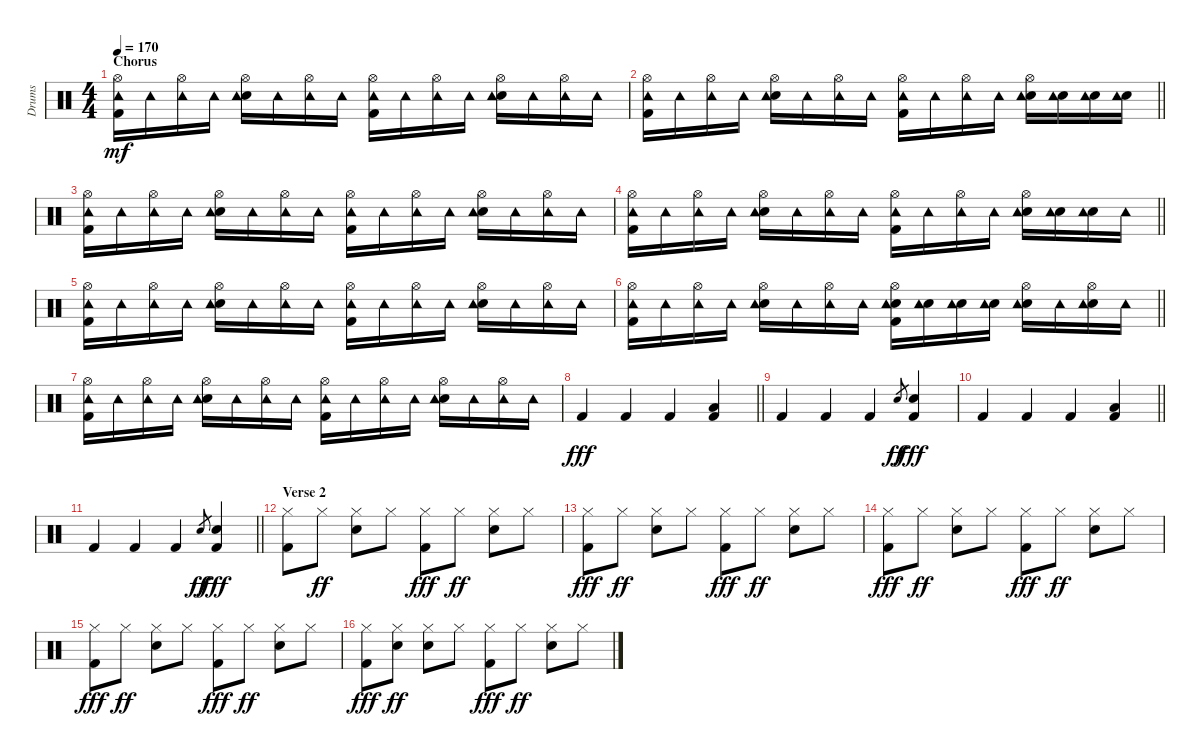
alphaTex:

\track ("Drums" "Drums") {instrument percussion}
\staff {score}
\articulation defaults
\ts (4 4)
\section ("" "Chorus")
\tempo 170
\clef neutral
\ks c
("Hi-Hat (open)" "Kick (hit) 2" "Tambourine (hit)").16{dy mf} "Tambourine (hit)".16 ("Hi-Hat (open)" "Tambourine (hit)").16 "Tambourine (hit)".16 ("Hi-Hat (open)" "Snare (hit) 2" "Tambourine (hit)").16 "Tambourine (hit)".16 ("Hi-Hat (open)" "Tambourine (hit)").16 "Tambourine (hit)".16 ("Hi-Hat (open)" "Kick (hit) 2" "Tambourine (hit)").16 "Tambourine (hit)".16 ("Hi-Hat (open)" "Tambourine (hit)").16 "Tambourine (hit)".16 ("Hi-Hat (open)" "Snare (hit) 2" "Tambourine (hit)").16 "Tambourine (hit)".16 ("Hi-Hat (open)" "Tambourine (hit)").16 "Tambourine (hit)".16 |
\barLineRight lightlight
("Hi-Hat (open)" "Kick (hit) 2" "Tambourine (hit)").16 "Tambourine (hit)".16 ("Hi-Hat (open)" "Tambourine (hit)").16 "Tambourine (hit)".16 ("Hi-Hat (open)" "Snare (hit) 2" "Tambourine (hit)").16 "Tambourine (hit)".16 ("Hi-Hat (open)" "Tambourine (hit)").16 "Tambourine (hit)".16 ("Hi-Hat (open)" "Kick (hit) 2" "Tambourine (hit)").16 "Tambourine (hit)".16 ("Hi-Hat (open)" "Tambourine (hit)").16 "Tambourine (hit)".16 ("Hi-Hat (open)" "Snare (hit) 2" "Tambourine (hit)").16 ("Snare (hit) 2" "Tambourine (hit)").16 ("Snare (hit) 2" "Tambourine (hit)").16 ("Snare (hit) 2" "Tambourine (hit)").16 |
("Hi-Hat (open)" "Kick (hit) 2" "Tambourine (hit)").16 "Tambourine (hit)".16 ("Hi-Hat (open)" "Tambourine (hit)").16 "Tambourine (hit)".16 ("Hi-Hat (open)" "Snare (hit) 2" "Tambourine (hit)").16 "Tambourine (hit)".16 ("Hi-Hat (open)" "Tambourine (hit)").16 "Tambourine (hit)".16 ("Hi-Hat (open)" "Kick (hit) 2" "Tambourine (hit)").16 "Tambourine (hit)".16 ("Hi-Hat (open)" "Tambourine (hit)").16 "Tambourine (hit)".16 ("Hi-Hat (open)" "Snare (hit) 2" "Tambourine (hit)").16 "Tambourine (hit)".16 ("Hi-Hat (open)" "Tambourine (hit)").16 "Tambourine (hit)".16 |
\barLineRight lightlight
("Hi-Hat (open)" "Kick (hit) 2" "Tambourine (hit)").16 "Tambourine (hit)".16 ("Hi-Hat (open)" "Tambourine (hit)").16 "Tambourine (hit)".16 ("Hi-Hat (open)" "Snare (hit) 2" "Tambourine (hit)").16 "Tambourine (hit)".16 ("Hi-Hat (open)" "Tambourine (hit)").16 "Tambourine (hit)".16 ("Hi-Hat (open)" "Kick (hit) 2" "Tambourine (hit)").16 "Tambourine (hit)".16 ("Hi-Hat (open)" "Tambourine (hit)").16 "Tambourine (hit)".16 ("Hi-Hat (open)" "Snare (hit) 2" "Tambourine (hit)").16 ("Snare (hit) 2" "Tambourine (hit)").16 ("Snare (hit) 2" "Tambourine (hit)").16 "Tambourine (hit)".16 |
("Hi-Hat (open)" "Kick (hit) 2" "Tambourine (hit)").16 "Tambourine (hit)".16 ("Hi-Hat (open)" "Tambourine (hit)").16 "Tambourine (hit)".16 ("Hi-Hat (open)" "Snare (hit) 2" "Tambourine (hit)").16 "Tambourine (hit)".16 ("Hi-Hat (open)" "Tambourine (hit)").16 "Tambourine (hit)".16 ("Hi-Hat (open)" "Kick (hit) 2" "Tambourine (hit)").16 "Tambourine (hit)".16 ("Hi-Hat (open)" "Tambourine (hit)").16 "Tambourine (hit)".16 ("Hi-Hat (open)" "Snare (hit) 2" "Tambourine (hit)").16 "Tambourine (hit)".16 ("Hi-Hat (open)" "Tambourine (hit)").16 "Tambourine (hit)".16 |
\barLineRight lightlight
("Hi-Hat (open)" "Kick (hit) 2" "Tambourine (hit)").16 "Tambourine (hit)".16 ("Hi-Hat (open)" "Tambourine (hit)").16 "Tambourine (hit)".16 ("Hi-Hat (open)" "Snare (hit) 2" "Tambourine (hit)").16 "Tambourine (hit)".16 ("Hi-Hat (open)" "Tambourine (hit)").16 "Tambourine (hit)".16 ("Hi-Hat (open)" "Snare (hit) 2" "Kick (hit) 2" "Tambourine (hit)").16 ("Snare (hit) 2" "Tambourine (hit)").16 ("Snare (hit) 2" "Tambourine (hit)").16 ("Snare (hit) 2" "Tambourine (hit)").16 ("Hi-Hat (open)" "Snare (hit) 2" "Tambourine (hit)").16 "Tambourine (hit)".16 ("Hi-Hat (open)" "Snare (hit) 2" "Tambourine (hit)").16 "Tambourine (hit)".16 |
("Hi-Hat (open)" "Kick (hit) 2" "Tambourine (hit)").16 "Tambourine (hit)".16 ("Hi-Hat (open)" "Tambourine (hit)").16 "Tambourine (hit)".16 ("Hi-Hat (open)" "Snare (hit) 2" "Tambourine (hit)").16 "Tambourine (hit)".16 ("Hi-Hat (open)" "Tambourine (hit)").16 "Tambourine (hit)".16 ("Hi-Hat (open)" "Kick (hit) 2" "Tambourine (hit)").16 "Tambourine (hit)".16 ("Hi-Hat (open)" "Tambourine (hit)").16 "Tambourine (hit)".16 ("Hi-Hat (open)" "Snare (hit) 2" "Tambourine (hit)").16 "Tambourine (hit)".16 ("Hi-Hat (open)" "Tambourine (hit)").16 "Tambourine (hit)".16 |
\barLineRight lightlight "Kick (hit) 2".4{dy fff} "Kick (hit) 2".4 "Kick (hit) 2".4
("Low Tom (hit)" "Kick (hit) 2").4 |
"Kick (hit) 2".4 "Kick (hit) 2".4 "Kick (hit) 2".4 "Snare (hit) 2".8{gr dy ff} ("Snare (hit) 2" "Kick (hit) 2").4{dy fff} |
\barLineRight lightlight "Kick (hit) 2".4 "Kick (hit) 2".4 "Kick (hit) 2".4
("Low Tom (hit)" "Kick (hit) 2").4 |
\barLineRight lightlight "Kick (hit) 2".4 "Kick (hit) 2".4 "Kick (hit) 2".4 "Snare (hit) 2".8{gr dy ff}
("Snare (hit) 2" "Kick (hit) 2").4{dy fff} |
\section ("" "Verse 2")
("Hi-Hat (closed)" "Kick (hit) 2").8 "Hi-Hat (closed)".8{dy ff} ("Hi-Hat (closed)" "Snare (hit) 2").8 "Hi-Hat (closed)".8 ("Hi-Hat (closed)" "Kick (hit) 2").8{dy fff} "Hi-Hat (closed)".8{dy ff} ("Hi-Hat (closed)" "Snare (hit) 2").8 "Hi-Hat (closed)".8 |
("Hi-Hat (closed)" "Kick (hit) 2").8{dy fff} "Hi-Hat (closed)".8{dy ff} ("Hi-Hat (closed)" "Snare (hit) 2").8 "Hi-Hat (closed)".8 ("Hi-Hat (closed)" "Kick (hit) 2").8{dy fff} "Hi-Hat (closed)".8{dy ff} ("Hi-Hat (closed)" "Snare (hit) 2").8 "Hi-Hat (closed)".8 |
("Hi-Hat (closed)" "Kick (hit) 2").8{dy fff} "Hi-Hat (closed)".8{dy ff} ("Hi-Hat (closed)" "Snare (hit) 2").8 "Hi-Hat (closed)".8 ("Hi-Hat (closed)" "Kick (hit) 2").8{dy fff} "Hi-Hat (closed)".8{dy ff} ("Hi-Hat (closed)" "Snare (hit) 2").8 "Hi-Hat (closed)".8 |
("Hi-Hat (closed)" "Kick (hit) 2").8{dy fff} "Hi-Hat (closed)".8{dy ff} ("Hi-Hat (closed)" "Snare (hit) 2").8 "Hi-Hat (closed)".8 ("Hi-Hat (closed)" "Kick (hit) 2").8{dy fff} "Hi-Hat (closed)".8{dy ff} ("Hi-Hat (closed)" "Snare (hit) 2").8 "Hi-Hat (closed)".8 |
("Hi-Hat (closed)" "Kick (hit) 2").8{dy fff} ("Hi-Hat (closed)" "Snare (hit) 2").8{dy ff} ("Hi-Hat (closed)" "Snare (hit) 2").8 "Hi-Hat (closed)".8 ("Hi-Hat (closed)" "Kick (hit) 2").8{dy fff} "Hi-Hat (closed)".8{dy ff} ("Hi-Hat (closed)" "Snare (hit) 2").8 "Hi-Hat (closed)".8
